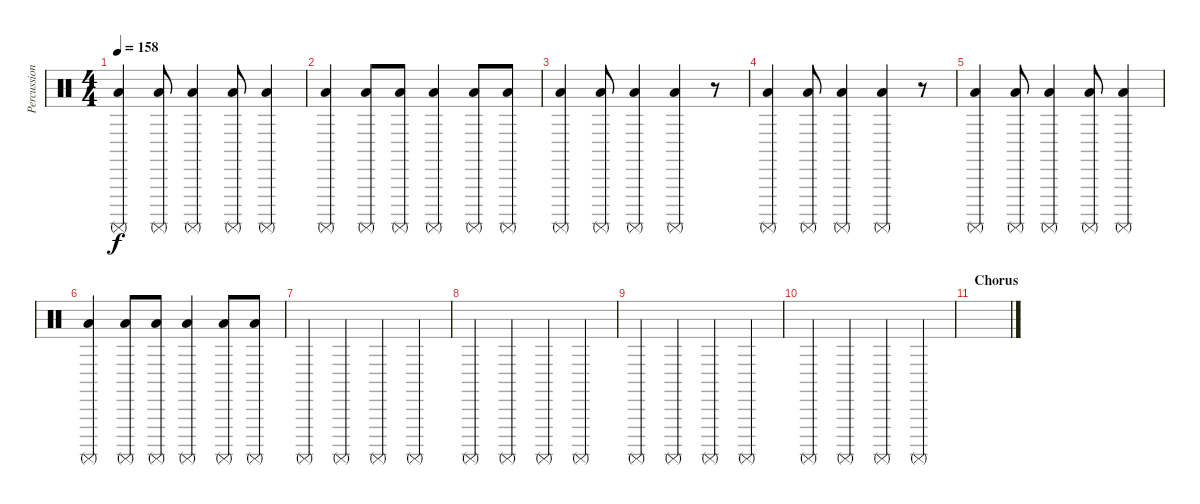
\track ("Percussion" "Percussion") {instrument percussion}
\staff {score}
\articulation defaults
\ts (4 4)
\tempo 158
\clef neutral
\ks c
("Low Floor Tom (hit)" "Surdo (mute)").4{dy f} ("Low Floor Tom (hit)" "Surdo (mute)").8 ("Low Floor Tom (hit)" "Surdo (mute)").4 ("Low Floor Tom (hit)" "Surdo (mute)").8 ("Low Floor Tom (hit)" "Surdo (mute)").4 |
("Low Floor Tom (hit)" "Surdo (mute)").4 ("Low Floor Tom (hit)" "Surdo (mute)").8 ("Low Floor Tom (hit)" "Surdo (mute)").8 ("Low Floor Tom (hit)" "Surdo (mute)").4 ("Low Floor Tom (hit)" "Surdo (mute)").8 ("Low Floor Tom (hit)" "Surdo (mute)").8 |
("Low Floor Tom (hit)" "Surdo (mute)").4 ("Low Floor Tom (hit)" "Surdo (mute)").8 ("Low Floor Tom (hit)" "Surdo (mute)").4 ("Low Floor Tom (hit)" "Surdo (mute)").4 r.8 |
("Low Floor Tom (hit)" "Surdo (mute)").4 ("Low Floor Tom (hit)" "Surdo (mute)").8 ("Low Floor Tom (hit)" "Surdo (mute)").4 ("Low Floor Tom (hit)" "Surdo (mute)").4 r.8 |
("Low Floor Tom (hit)" "Surdo (mute)").4 ("Low Floor Tom (hit)" "Surdo (mute)").8 ("Low Floor Tom (hit)" "Surdo (mute)").4 ("Low Floor Tom (hit)" "Surdo (mute)").8 ("Low Floor Tom (hit)" "Surdo (mute)").4 |
("Low Floor Tom (hit)" "Surdo (mute)").4 ("Low Floor Tom (hit)" "Surdo (mute)").8 ("Low Floor Tom (hit)" "Surdo (mute)").8 ("Low Floor Tom (hit)" "Surdo (mute)").4 ("Low Floor Tom (hit)" "Surdo (mute)").8 ("Low Floor Tom (hit)" "Surdo (mute)").8 |
"Surdo (mute)".4 "Surdo (mute)".4 "Surdo (mute)".4 "Surdo (mute)".4 |
"Surdo (mute)".4 "Surdo (mute)".4 "Surdo (mute)".4 "Surdo (mute)".4 |
"Surdo (mute)".4 "Surdo (mute)".4 "Surdo (mute)".4 "Surdo (mute)".4 |
"Surdo (mute)".4 "Surdo (mute)".4 "Surdo (mute)".4 "Surdo (mute)".4 |
\section ("" "Chorus")
